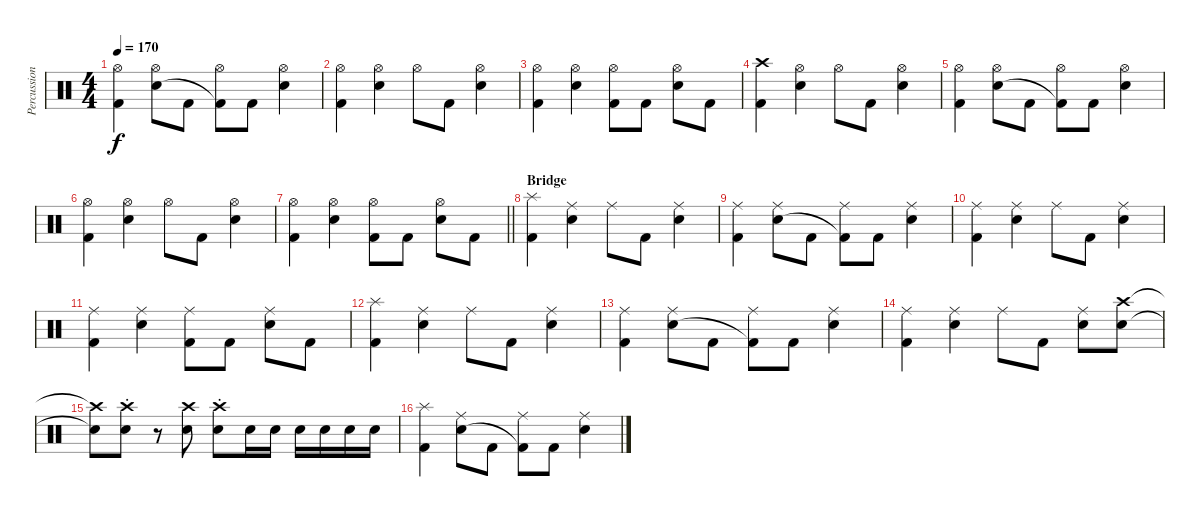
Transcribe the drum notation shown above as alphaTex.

\track ("Percussion" "Percussion") {instrument percussion}
\staff {score}
\articulation defaults
\ts (4 4)
\tempo 170
\clef neutral
\ks c
("Hi-Hat (open)" "Kick (hit) 2").4{dy f} ("Hi-Hat (open)" "Snare (hit) 2").8 "Kick (hit) 2".8 ("Hi-Hat (open)" "Kick (hit) 2"{t}).8 "Kick (hit) 2".8 ("Hi-Hat (open)" "Snare (hit) 2").4 |
("Hi-Hat (open)" "Kick (hit) 2").4 ("Hi-Hat (open)" "Snare (hit) 2").4 "Hi-Hat (open)".8 "Kick (hit) 2".8 ("Hi-Hat (open)" "Snare (hit) 2").4 |
("Hi-Hat (open)" "Kick (hit) 2").4 ("Hi-Hat (open)" "Snare (hit) 2").4 ("Hi-Hat (open)" "Kick (hit) 2").8 "Kick (hit) 2".8 ("Hi-Hat (open)" "Snare (hit) 2").8 "Kick (hit) 2".8 |
("Crash high (hit)" "Kick (hit) 2").4 ("Hi-Hat (open)" "Snare (hit) 2").4 "Hi-Hat (open)".8 "Kick (hit) 2".8 ("Hi-Hat (open)" "Snare (hit) 2").4 |
("Hi-Hat (open)" "Kick (hit) 2").4 ("Hi-Hat (open)" "Snare (hit) 2").8 "Kick (hit) 2".8 ("Hi-Hat (open)" "Kick (hit) 2"{t}).8 "Kick (hit) 2".8 ("Hi-Hat (open)" "Snare (hit) 2").4 |
("Hi-Hat (open)" "Kick (hit) 2").4 ("Hi-Hat (open)" "Snare (hit) 2").4 "Hi-Hat (open)".8 "Kick (hit) 2".8 ("Hi-Hat (open)" "Snare (hit) 2").4 |
\barLineRight lightlight
("Hi-Hat (open)" "Kick (hit) 2").4 ("Hi-Hat (open)" "Snare (hit) 2").4 ("Hi-Hat (open)" "Kick (hit) 2").8 "Kick (hit) 2".8 ("Hi-Hat (open)" "Snare (hit) 2").8 "Kick (hit) 2".8 |
\section ("" "Bridge")
("Splash (hit)" "Kick (hit) 2").4 ("Ride (middle)" "Snare (hit) 2").4 "Ride (middle)".8 "Kick (hit) 2".8 ("Ride (middle)" "Snare (hit) 2").4 |
("Ride (middle)" "Kick (hit) 2").4 ("Ride (middle)" "Snare (hit) 2").8 "Kick (hit) 2".8 ("Ride (middle)" "Kick (hit) 2"{t}).8 "Kick (hit) 2".8 ("Ride (middle)" "Snare (hit) 2").4 |
("Ride (middle)" "Kick (hit) 2").4 ("Ride (middle)" "Snare (hit) 2").4 "Ride (middle)".8 "Kick (hit) 2".8 ("Ride (middle)" "Snare (hit) 2").4 |
("Ride (middle)" "Kick (hit) 2").4 ("Ride (middle)" "Snare (hit) 2").4 ("Ride (middle)" "Kick (hit) 2").8 "Kick (hit) 2".8 ("Ride (middle)" "Snare (hit) 2").8 "Kick (hit) 2".8 |
("Splash (hit)" "Kick (hit) 2").4 ("Ride (middle)" "Snare (hit) 2").4 "Ride (middle)".8 "Kick (hit) 2".8 ("Ride (middle)" "Snare (hit) 2").4 |
("Ride (middle)" "Kick (hit) 2").4 ("Ride (middle)" "Snare (hit) 2").8 "Kick (hit) 2".8 ("Ride (middle)" "Kick (hit) 2"{t}).8 "Kick (hit) 2".8 ("Ride (middle)" "Snare (hit) 2").4 |
("Ride (middle)" "Kick (hit) 2").4 ("Ride (middle)" "Snare (hit) 2").4 "Ride (middle)".8 "Kick (hit) 2".8 ("Ride (middle)" "Snare (hit) 2").8 ("Crash high (hit)" "Snare (hit) 2").8 |
("Crash high (hit)"{t} "Snare (hit) 2"{t}).8 ("Crash high (hit)" "Snare (hit) 2"{st}).8 r.8 ("Crash high (hit)" "Snare (hit) 2").8 ("Crash high (hit)" "Snare (hit) 2"{st}).8 "Snare (hit) 2".16 "Electric Snare (hit)".16 "Snare (hit) 2".16 "Snare (hit) 2".16 "Electric Snare (hit)".16 "Electric Snare (hit)".16 |
("Splash (hit)" "Kick (hit) 2").4 ("Ride (middle)" "Snare (hit) 2").8 "Kick (hit) 2".8 ("Ride (middle)" "Kick (hit) 2"{t}).8 "Kick (hit) 2".8 ("Ride (middle)" "Snare (hit) 2").4
